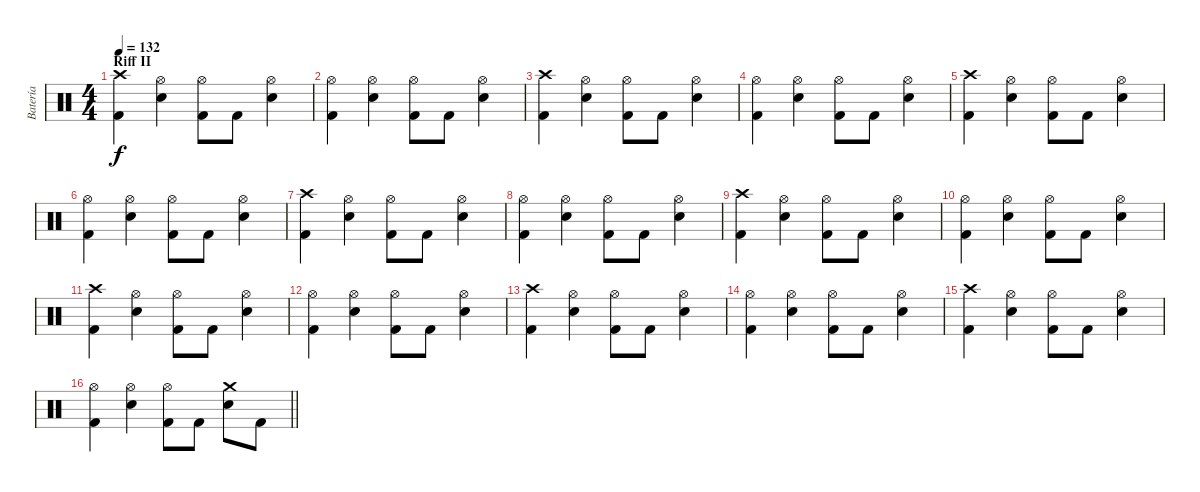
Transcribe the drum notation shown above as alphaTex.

\track ("Batería" "Batería") {instrument percussion}
\staff {score}
\articulation defaults
\ts (4 4)
\section ("" "Riff II")
\tempo 132
\clef neutral
\ks c
("Crash high (hit)" "Kick (hit) 2").4{dy f} ("Hi-Hat (open)" "Electric Snare (hit)").4 ("Kick (hit) 2" "Hi-Hat (open)").8 "Kick (hit) 2".8 ("Hi-Hat (open)" "Electric Snare (hit)").4 |
("Hi-Hat (open)" "Kick (hit) 2").4 ("Hi-Hat (open)" "Electric Snare (hit)").4 ("Kick (hit) 2" "Hi-Hat (open)").8 "Kick (hit) 2".8 ("Hi-Hat (open)" "Electric Snare (hit)").4 |
("Crash high (hit)" "Kick (hit) 2").4 ("Hi-Hat (open)" "Electric Snare (hit)").4 ("Kick (hit) 2" "Hi-Hat (open)").8 "Kick (hit) 2".8 ("Hi-Hat (open)" "Electric Snare (hit)").4 |
("Hi-Hat (open)" "Kick (hit) 2").4 ("Hi-Hat (open)" "Electric Snare (hit)").4 ("Kick (hit) 2" "Hi-Hat (open)").8 "Kick (hit) 2".8 ("Hi-Hat (open)" "Electric Snare (hit)").4 |
("Crash high (hit)" "Kick (hit) 2").4 ("Hi-Hat (open)" "Electric Snare (hit)").4 ("Kick (hit) 2" "Hi-Hat (open)").8 "Kick (hit) 2".8 ("Hi-Hat (open)" "Electric Snare (hit)").4 |
("Hi-Hat (open)" "Kick (hit) 2").4 ("Hi-Hat (open)" "Electric Snare (hit)").4 ("Kick (hit) 2" "Hi-Hat (open)").8 "Kick (hit) 2".8 ("Hi-Hat (open)" "Electric Snare (hit)").4 |
("Crash high (hit)" "Kick (hit) 2").4 ("Hi-Hat (open)" "Electric Snare (hit)").4 ("Kick (hit) 2" "Hi-Hat (open)").8 "Kick (hit) 2".8 ("Hi-Hat (open)" "Electric Snare (hit)").4 |
("Hi-Hat (open)" "Kick (hit) 2").4 ("Hi-Hat (open)" "Electric Snare (hit)").4 ("Kick (hit) 2" "Hi-Hat (open)").8 "Kick (hit) 2".8 ("Hi-Hat (open)" "Electric Snare (hit)").4 |
("Crash high (hit)" "Kick (hit) 2").4 ("Hi-Hat (open)" "Electric Snare (hit)").4 ("Kick (hit) 2" "Hi-Hat (open)").8 "Kick (hit) 2".8 ("Hi-Hat (open)" "Electric Snare (hit)").4 |
("Hi-Hat (open)" "Kick (hit) 2").4 ("Hi-Hat (open)" "Electric Snare (hit)").4 ("Kick (hit) 2" "Hi-Hat (open)").8 "Kick (hit) 2".8 ("Hi-Hat (open)" "Electric Snare (hit)").4 |
("Crash high (hit)" "Kick (hit) 2").4 ("Hi-Hat (open)" "Electric Snare (hit)").4 ("Kick (hit) 2" "Hi-Hat (open)").8 "Kick (hit) 2".8 ("Hi-Hat (open)" "Electric Snare (hit)").4 |
("Hi-Hat (open)" "Kick (hit) 2").4 ("Hi-Hat (open)" "Electric Snare (hit)").4 ("Kick (hit) 2" "Hi-Hat (open)").8 "Kick (hit) 2".8 ("Hi-Hat (open)" "Electric Snare (hit)").4 |
("Crash high (hit)" "Kick (hit) 2").4 ("Hi-Hat (open)" "Electric Snare (hit)").4 ("Kick (hit) 2" "Hi-Hat (open)").8 "Kick (hit) 2".8 ("Hi-Hat (open)" "Electric Snare (hit)").4 |
("Hi-Hat (open)" "Kick (hit) 2").4 ("Hi-Hat (open)" "Electric Snare (hit)").4 ("Kick (hit) 2" "Hi-Hat (open)").8 "Kick (hit) 2".8 ("Hi-Hat (open)" "Electric Snare (hit)").4 |
("Crash high (hit)" "Kick (hit) 2").4 ("Hi-Hat (open)" "Electric Snare (hit)").4 ("Kick (hit) 2" "Hi-Hat (open)").8 "Kick (hit) 2".8 ("Hi-Hat (open)" "Electric Snare (hit)").4 |
\barLineRight lightlight
("Hi-Hat (open)" "Kick (hit) 2").4 ("Hi-Hat (open)" "Electric Snare (hit)").4 ("Kick (hit) 2" "Hi-Hat (open)").8 "Kick (hit) 2".8 ("Crash medium (hit)" "Electric Snare (hit)").8 "Kick (hit) 2".8
